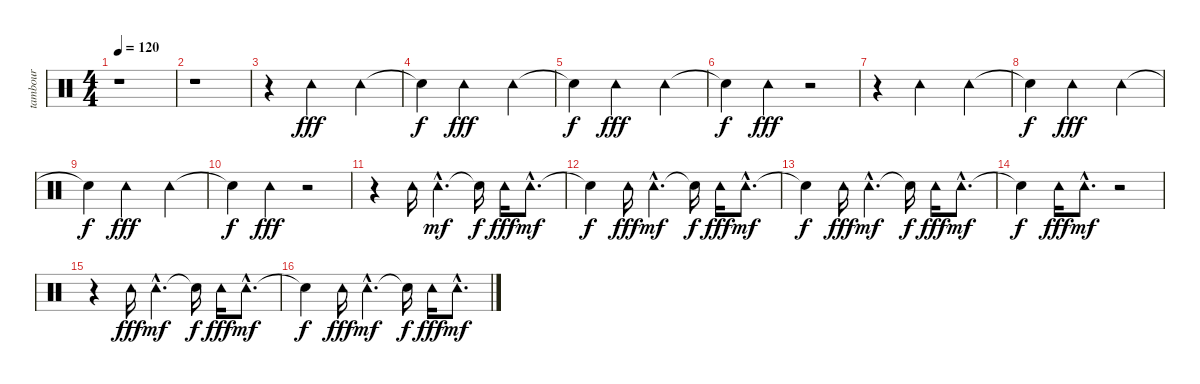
\track ("tambour" "tambour") {instrument percussion}
\staff {score}
\articulation defaults
\ts (4 4)
\tempo 120
\clef neutral
\ks c
r.1{dy fff} |
r.1 |
r.4 "Tambourine (hit)".2 "Tambourine (hit)".4 |
"Snare (hit)"{t}.4{dy f} "Tambourine (hit)".2{dy fff} "Tambourine (hit)".4 |
"Snare (hit)"{t}.4{dy f} "Tambourine (hit)".2{dy fff} "Tambourine (hit)".4 |
"Snare (hit)"{t}.4{dy f} "Tambourine (hit)".4{dy fff} r.2 |
r.4 "Tambourine (hit)".2 "Tambourine (hit)".4 |
"Snare (hit)"{t}.4{dy f} "Tambourine (hit)".2{dy fff} "Tambourine (hit)".4 |
"Snare (hit)"{t}.4{dy f} "Tambourine (hit)".2{dy fff} "Tambourine (hit)".4 |
"Snare (hit)"{t}.4{dy f} "Tambourine (hit)".4{dy fff} r.2 |
r.4 "Tambourine (hit)".16 "Tambourine (hit)"{hac}.4{d dy mf} "Snare (hit)"{t}.16{dy f} "Tambourine (hit)".16{dy fff} "Tambourine (hit)"{hac}.8{d dy mf} |
"Snare (hit)"{t}.4{dy f} "Tambourine (hit)".16{dy fff} "Tambourine (hit)"{hac}.4{d dy mf} "Snare (hit)"{t}.16{dy f} "Tambourine (hit)".16{dy fff} "Tambourine (hit)"{hac}.8{d dy mf} |
"Snare (hit)"{t}.4{dy f} "Tambourine (hit)".16{dy fff} "Tambourine (hit)"{hac}.4{d dy mf} "Snare (hit)"{t}.16{dy f} "Tambourine (hit)".16{dy fff} "Tambourine (hit)"{hac}.8{d dy mf} |
"Snare (hit)"{t}.4{dy f} "Tambourine (hit)".16{dy fff} "Tambourine (hit)"{hac}.8{d dy mf} r.2 |
r.4 "Tambourine (hit)".16{dy fff} "Tambourine (hit)"{hac}.4{d dy mf} "Snare (hit)"{t}.16{dy f} "Tambourine (hit)".16{dy fff} "Tambourine (hit)"{hac}.8{d dy mf} |
"Snare (hit)"{t}.4{dy f} "Tambourine (hit)".16{dy fff} "Tambourine (hit)"{hac}.4{d dy mf} "Snare (hit)"{t}.16{dy f} "Tambourine (hit)".16{dy fff} "Tambourine (hit)"{hac}.8{d dy mf}
